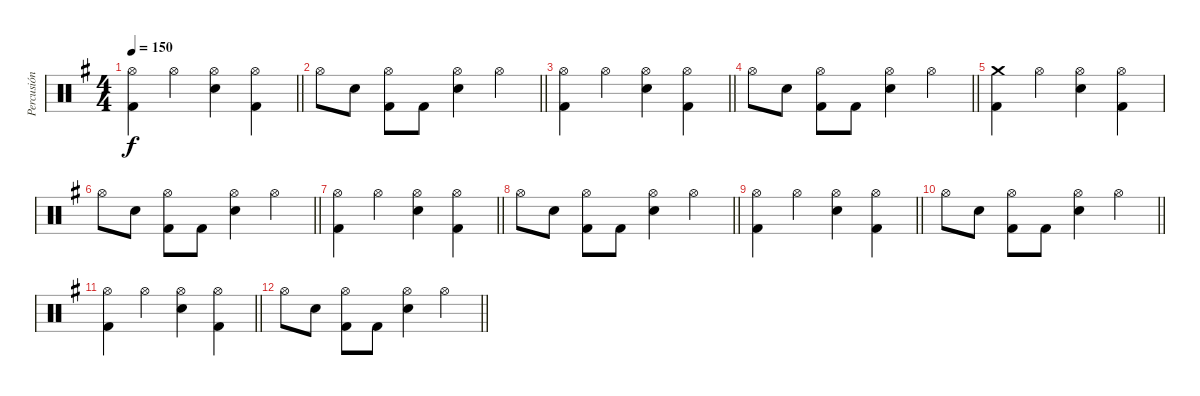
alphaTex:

\track ("Percusión" "Percusión") {instrument percussion}
\staff {score}
\articulation defaults
\ts (4 4)
\tempo 150
\clef neutral
\barLineRight lightlight
\ks eminor
("Hi-Hat (open)" "Kick (hit) 2").4{dy f} "Hi-Hat (open)".4 ("Hi-Hat (open)" "Electric Snare (hit)").4 ("Hi-Hat (open)" "Kick (hit) 2").4 |
\barLineRight lightlight "Hi-Hat (open)".8 "Electric Snare (hit)".8
("Hi-Hat (open)" "Kick (hit) 2").8 "Kick (hit) 2".8 ("Hi-Hat (open)" "Electric Snare (hit)").4 "Hi-Hat (open)".4 |
\barLineRight lightlight
("Hi-Hat (open)" "Kick (hit) 2").4 "Hi-Hat (open)".4 ("Hi-Hat (open)" "Electric Snare (hit)").4 ("Hi-Hat (open)" "Kick (hit) 2").4 |
\barLineRight lightlight "Hi-Hat (open)".8 "Electric Snare (hit)".8
("Hi-Hat (open)" "Kick (hit) 2").8 "Kick (hit) 2".8 ("Hi-Hat (open)" "Electric Snare (hit)").4 "Hi-Hat (open)".4 |
("Crash medium (hit)" "Kick (hit) 2").4 "Hi-Hat (open)".4 ("Hi-Hat (open)" "Electric Snare (hit)").4 ("Hi-Hat (open)" "Kick (hit) 2").4 |
\barLineRight lightlight "Hi-Hat (open)".8 "Electric Snare (hit)".8
("Hi-Hat (open)" "Kick (hit) 2").8 "Kick (hit) 2".8 ("Hi-Hat (open)" "Electric Snare (hit)").4 "Hi-Hat (open)".4 |
\barLineRight lightlight
("Hi-Hat (open)" "Kick (hit) 2").4 "Hi-Hat (open)".4 ("Hi-Hat (open)" "Electric Snare (hit)").4 ("Hi-Hat (open)" "Kick (hit) 2").4 |
\barLineRight lightlight "Hi-Hat (open)".8 "Electric Snare (hit)".8
("Hi-Hat (open)" "Kick (hit) 2").8 "Kick (hit) 2".8 ("Hi-Hat (open)" "Electric Snare (hit)").4 "Hi-Hat (open)".4 |
\barLineRight lightlight
("Hi-Hat (open)" "Kick (hit) 2").4 "Hi-Hat (open)".4 ("Hi-Hat (open)" "Electric Snare (hit)").4 ("Hi-Hat (open)" "Kick (hit) 2").4 |
\barLineRight lightlight "Hi-Hat (open)".8 "Electric Snare (hit)".8
("Hi-Hat (open)" "Kick (hit) 2").8 "Kick (hit) 2".8 ("Hi-Hat (open)" "Electric Snare (hit)").4 "Hi-Hat (open)".4 |
\barLineRight lightlight
("Hi-Hat (open)" "Kick (hit) 2").4 "Hi-Hat (open)".4 ("Hi-Hat (open)" "Electric Snare (hit)").4 ("Hi-Hat (open)" "Kick (hit) 2").4 |
\barLineRight lightlight "Hi-Hat (open)".8 "Electric Snare (hit)".8
("Hi-Hat (open)" "Kick (hit) 2").8 "Kick (hit) 2".8 ("Hi-Hat (open)" "Electric Snare (hit)").4 "Hi-Hat (open)".4
